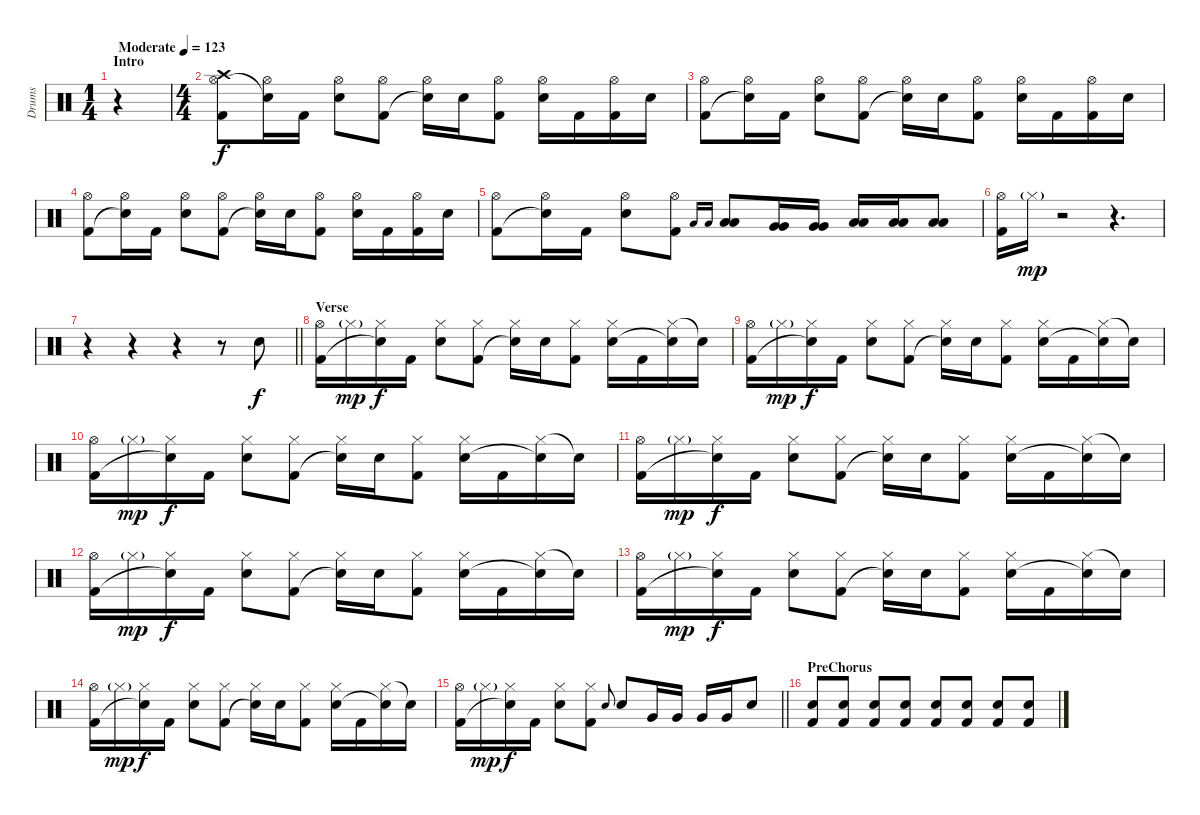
\track ("Drums" "Drums") {instrument percussion}
\staff {score}
\articulation defaults
\ts (1 4)
\section ("" "Intro")
\tempo (123 "Moderate")
\clef neutral
\ks c
r.4{dy f} |
\ts (4 4)
("Crash high (hit)" "Hi-Hat (open)" "Kick (hit) 2").8 ("Hi-Hat (open)" "Snare (hit)"{t}).16 "Kick (hit) 2".16 ("Hi-Hat (open)" "Electric Snare (hit)").8 ("Hi-Hat (open)" "Kick (hit) 2").8 ("Hi-Hat (open)" "Snare (hit)"{t}).16 "Electric Snare (hit)".16 ("Hi-Hat (open)" "Kick (hit) 2").8 ("Hi-Hat (open)" "Electric Snare (hit)").16 "Kick (hit) 2".16 ("Hi-Hat (open)" "Kick (hit) 2").16 "Electric Snare (hit)".16 |
("Hi-Hat (open)" "Kick (hit) 2").8 ("Hi-Hat (open)" "Snare (hit)"{t}).16 "Kick (hit) 2".16 ("Hi-Hat (open)" "Electric Snare (hit)").8 ("Hi-Hat (open)" "Kick (hit) 2").8 ("Hi-Hat (open)" "Snare (hit)"{t}).16 "Electric Snare (hit)".16 ("Hi-Hat (open)" "Kick (hit) 2").8 ("Hi-Hat (open)" "Electric Snare (hit)").16 "Kick (hit) 2".16 ("Hi-Hat (open)" "Kick (hit) 2").16 "Electric Snare (hit)".16 |
("Hi-Hat (open)" "Kick (hit) 2").8 ("Hi-Hat (open)" "Snare (hit)"{t}).16 "Kick (hit) 2".16 ("Hi-Hat (open)" "Electric Snare (hit)").8 ("Hi-Hat (open)" "Kick (hit) 2").8 ("Hi-Hat (open)" "Snare (hit)"{t}).16 "Electric Snare (hit)".16 ("Hi-Hat (open)" "Kick (hit) 2").8 ("Hi-Hat (open)" "Electric Snare (hit)").16 "Kick (hit) 2".16 ("Hi-Hat (open)" "Kick (hit) 2").16 "Electric Snare (hit)".16 |
("Hi-Hat (open)" "Kick (hit) 2").8 ("Hi-Hat (open)" "Snare (hit)"{t}).16 "Kick (hit) 2".16 ("Hi-Hat (open)" "Electric Snare (hit)").8 ("Hi-Hat (open)" "Kick (hit) 2").8 "Low Tom (hit)".16{gr onbeat} "Low Tom (hit)".16{gr onbeat} ("Low Tom (hit)" "Low Tom (hit)").8 ("Very Low Tom (hit)" "Very Low Tom (hit)").16 ("Very Low Tom (hit)" "Very Low Tom (hit)").16 ("Low Floor Tom (hit)" "Low Floor Tom (hit)").16 ("Low Floor Tom (hit)" "Low Floor Tom (hit)").16 ("Low Floor Tom (hit)" "Low Floor Tom (hit)").8 |
("Hi-Hat (open)" "Kick (hit) 2").16 "Hi-Hat (closed)"{g}.16{dy mp} r.2 r.4{d} |
\barLineRight lightlight
r.4 r.4 r.4 r.8 "Electric Snare (hit)".8{dy f} |
\section ("" "Verse")
("Hi-Hat (open)" "Kick (hit) 2").16 "Hi-Hat (closed)"{g}.16{dy mp} ("Hi-Hat (closed)" "Snare (hit)"{t}).16{dy f} "Kick (hit) 2".16 ("Hi-Hat (closed)" "Electric Snare (hit)").8 ("Hi-Hat (closed)" "Kick (hit) 2").8 ("Hi-Hat (closed)" "Snare (hit)"{t}).16 "Electric Snare (hit)".16 ("Hi-Hat (closed)" "Kick (hit) 2").8 ("Hi-Hat (closed)" "Electric Snare (hit)").16 "Kick (hit) 2".16 ("Hi-Hat (closed)" "Snare (hit)"{t}).16 "Snare (hit)"{t}.16 |
("Hi-Hat (open)" "Kick (hit) 2").16 "Hi-Hat (closed)"{g}.16{dy mp} ("Hi-Hat (closed)" "Snare (hit)"{t}).16{dy f} "Kick (hit) 2".16 ("Hi-Hat (closed)" "Electric Snare (hit)").8 ("Hi-Hat (closed)" "Kick (hit) 2").8 ("Hi-Hat (closed)" "Snare (hit)"{t}).16 "Electric Snare (hit)".16 ("Hi-Hat (closed)" "Kick (hit) 2").8 ("Hi-Hat (closed)" "Electric Snare (hit)").16 "Kick (hit) 2".16 ("Hi-Hat (closed)" "Snare (hit)"{t}).16 "Snare (hit)"{t}.16 |
("Hi-Hat (open)" "Kick (hit) 2").16 "Hi-Hat (closed)"{g}.16{dy mp} ("Hi-Hat (closed)" "Snare (hit)"{t}).16{dy f} "Kick (hit) 2".16 ("Hi-Hat (closed)" "Electric Snare (hit)").8 ("Hi-Hat (closed)" "Kick (hit) 2").8 ("Hi-Hat (closed)" "Snare (hit)"{t}).16 "Electric Snare (hit)".16 ("Hi-Hat (closed)" "Kick (hit) 2").8 ("Hi-Hat (closed)" "Electric Snare (hit)").16 "Kick (hit) 2".16 ("Hi-Hat (closed)" "Snare (hit)"{t}).16 "Snare (hit)"{t}.16 |
("Hi-Hat (open)" "Kick (hit) 2").16 "Hi-Hat (closed)"{g}.16{dy mp} ("Hi-Hat (closed)" "Snare (hit)"{t}).16{dy f} "Kick (hit) 2".16 ("Hi-Hat (closed)" "Electric Snare (hit)").8 ("Hi-Hat (closed)" "Kick (hit) 2").8 ("Hi-Hat (closed)" "Snare (hit)"{t}).16 "Electric Snare (hit)".16 ("Hi-Hat (closed)" "Kick (hit) 2").8 ("Hi-Hat (closed)" "Electric Snare (hit)").16 "Kick (hit) 2".16 ("Hi-Hat (closed)" "Snare (hit)"{t}).16 "Snare (hit)"{t}.16 |
("Hi-Hat (open)" "Kick (hit) 2").16 "Hi-Hat (closed)"{g}.16{dy mp} ("Hi-Hat (closed)" "Snare (hit)"{t}).16{dy f} "Kick (hit) 2".16 ("Hi-Hat (closed)" "Electric Snare (hit)").8 ("Hi-Hat (closed)" "Kick (hit) 2").8 ("Hi-Hat (closed)" "Snare (hit)"{t}).16 "Electric Snare (hit)".16 ("Hi-Hat (closed)" "Kick (hit) 2").8 ("Hi-Hat (closed)" "Electric Snare (hit)").16 "Kick (hit) 2".16 ("Hi-Hat (closed)" "Snare (hit)"{t}).16 "Snare (hit)"{t}.16 |
("Hi-Hat (open)" "Kick (hit) 2").16 "Hi-Hat (closed)"{g}.16{dy mp} ("Hi-Hat (closed)" "Snare (hit)"{t}).16{dy f} "Kick (hit) 2".16 ("Hi-Hat (closed)" "Electric Snare (hit)").8 ("Hi-Hat (closed)" "Kick (hit) 2").8 ("Hi-Hat (closed)" "Snare (hit)"{t}).16 "Electric Snare (hit)".16 ("Hi-Hat (closed)" "Kick (hit) 2").8 ("Hi-Hat (closed)" "Electric Snare (hit)").16 "Kick (hit) 2".16 ("Hi-Hat (closed)" "Snare (hit)"{t}).16 "Snare (hit)"{t}.16 |
("Hi-Hat (open)" "Kick (hit) 2").16 "Hi-Hat (closed)"{g}.16{dy mp} ("Hi-Hat (closed)" "Snare (hit)"{t}).16{dy f} "Kick (hit) 2".16 ("Hi-Hat (closed)" "Electric Snare (hit)").8 ("Hi-Hat (closed)" "Kick (hit) 2").8 ("Hi-Hat (closed)" "Snare (hit)"{t}).16 "Electric Snare (hit)".16 ("Hi-Hat (closed)" "Kick (hit) 2").8 ("Hi-Hat (closed)" "Electric Snare (hit)").16 "Kick (hit) 2".16 ("Hi-Hat (closed)" "Snare (hit)"{t}).16 "Snare (hit)"{t}.16 |
\barLineRight lightlight
("Hi-Hat (open)" "Kick (hit) 2").16 "Hi-Hat (closed)"{g}.16{dy mp} ("Hi-Hat (closed)" "Snare (hit)"{t}).16{dy f} "Kick (hit) 2".16 ("Hi-Hat (closed)" "Electric Snare (hit)").8 ("Hi-Hat (closed)" "Kick (hit) 2").8 "Electric Snare (hit)".8{gr onbeat} "Electric Snare (hit)".8 "Very Low Tom (hit)".16 "Very Low Tom (hit)".16 "Very Low Tom (hit)".16 "Very Low Tom (hit)".16 "Electric Snare (hit)".8 |
\section ("" "PreChorus")
("Electric Snare (hit)" "Kick (hit) 2").8 ("Electric Snare (hit)" "Kick (hit) 2").8 ("Electric Snare (hit)" "Kick (hit) 2").8 ("Electric Snare (hit)" "Kick (hit) 2").8 ("Electric Snare (hit)" "Kick (hit) 2").8 ("Electric Snare (hit)" "Kick (hit) 2").8 ("Electric Snare (hit)" "Kick (hit) 2").8 ("Electric Snare (hit)" "Kick (hit) 2").8
